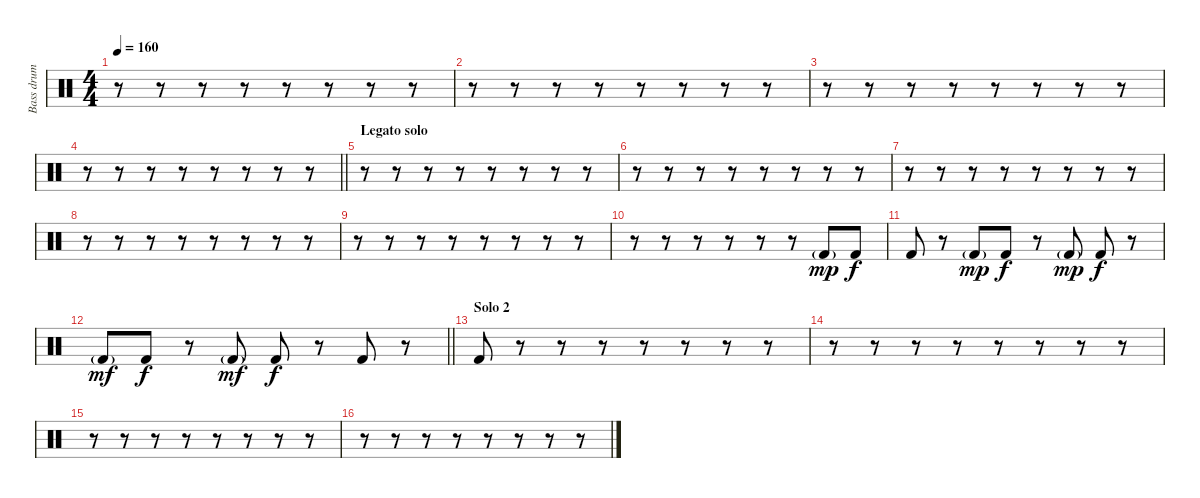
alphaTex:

\track ("Bass drum" "Bass drum") {instrument percussion}
\staff {score}
\articulation defaults
\ts (4 4)
\tempo 160
\clef neutral
\ks c
r.8{dy f} r.8 r.8 r.8 r.8 r.8 r.8 r.8 |
r.8 r.8 r.8 r.8 r.8 r.8 r.8 r.8 |
r.8 r.8 r.8 r.8 r.8 r.8 r.8 r.8 |
\barLineRight lightlight
r.8 r.8 r.8 r.8 r.8 r.8 r.8 r.8 |
\section ("" "Legato solo")
r.8 r.8 r.8 r.8 r.8 r.8 r.8 r.8 |
r.8 r.8 r.8 r.8 r.8 r.8 r.8 r.8 |
r.8 r.8 r.8 r.8 r.8 r.8 r.8 r.8 |
r.8 r.8 r.8 r.8 r.8 r.8 r.8 r.8 |
r.8 r.8 r.8 r.8 r.8 r.8 r.8 r.8 |
r.8 r.8 r.8 r.8 r.8 r.8 "Kick (hit) 2"{g}.8{dy mp} "Kick (hit) 2".8{dy f} |
"Kick (hit) 2".8 r.8 "Kick (hit) 2"{g}.8{dy mp} "Kick (hit) 2".8{dy f} r.8 "Kick (hit) 2"{g}.8{dy mp} "Kick (hit) 2".8{dy f} r.8 |
\barLineRight lightlight "Kick (hit) 2"{g}.8{dy mf} "Kick (hit) 2".8{dy f}
r.8 "Kick (hit) 2"{g}.8{dy mf} "Kick (hit) 2".8{dy f} r.8 "Kick (hit) 2".8 r.8 |
\section ("" "Solo 2")
"Kick (hit) 2".8 r.8 r.8 r.8 r.8 r.8 r.8 r.8 |
r.8 r.8 r.8 r.8 r.8 r.8 r.8 r.8 |
r.8 r.8 r.8 r.8 r.8 r.8 r.8 r.8 |
r.8 r.8 r.8 r.8 r.8 r.8 r.8 r.8
